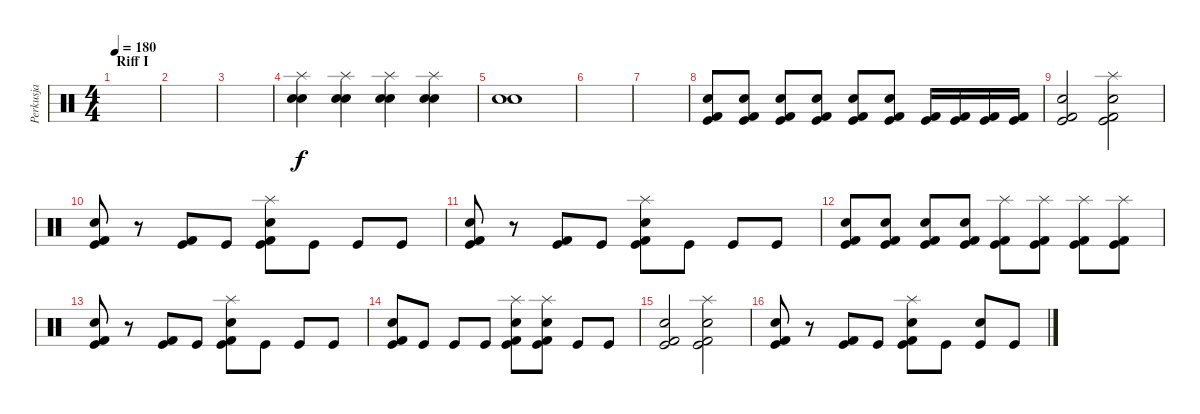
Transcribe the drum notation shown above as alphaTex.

\track ("Perkusja" "Perkusja") {instrument percussion}
\staff {score}
\articulation defaults
\ts (4 4)
\section ("" "Riff I")
\tempo 180
\clef neutral
\ks c
|
|
|
("Splash (hit)" "Snare (hit) 2" "Electric Snare (hit)").4 ("Splash (hit)" "Snare (hit) 2" "Electric Snare (hit)").4 ("Splash (hit)" "Snare (hit) 2" "Electric Snare (hit)").4 ("Splash (hit)" "Snare (hit) 2" "Electric Snare (hit)").4 |
("Electric Snare (hit)" "Snare (hit) 2").1 |
|
|
("Kick (hit) 2" "Electric Snare (hit)" "Kick (hit)").8 ("Kick (hit) 2" "Electric Snare (hit)" "Kick (hit)").8 ("Kick (hit) 2" "Electric Snare (hit)" "Kick (hit)").8 ("Kick (hit) 2" "Electric Snare (hit)" "Kick (hit)").8 ("Kick (hit) 2" "Electric Snare (hit)" "Kick (hit)").8 ("Kick (hit) 2" "Electric Snare (hit)" "Kick (hit)").8 ("Kick (hit) 2" "Kick (hit)").16 ("Kick (hit) 2" "Kick (hit)").16 ("Kick (hit) 2" "Kick (hit)").16 ("Kick (hit) 2" "Kick (hit)").16 |
("Electric Snare (hit)" "Kick (hit) 2" "Kick (hit)").2 ("Snare (hit) 2" "Splash (hit)" "Kick (hit)" "Kick (hit) 2").2 |
("Electric Snare (hit)" "Kick (hit) 2" "Kick (hit)").8 r.8 ("Kick (hit) 2" "Kick (hit)").8 "Kick (hit)".8 ("Snare (hit) 2" "Splash (hit)" "Kick (hit)" "Kick (hit) 2").8 "Kick (hit)".8 "Kick (hit)".8 "Kick (hit)".8 |
("Electric Snare (hit)" "Kick (hit) 2" "Kick (hit)").8 r.8 ("Kick (hit) 2" "Kick (hit)").8 "Kick (hit)".8 ("Snare (hit) 2" "Splash (hit)" "Kick (hit)" "Kick (hit) 2").8 "Kick (hit)".8 "Kick (hit)".8 "Kick (hit)".8 |
("Kick (hit) 2" "Electric Snare (hit)" "Kick (hit)").8 ("Kick (hit) 2" "Electric Snare (hit)" "Kick (hit)").8 ("Kick (hit) 2" "Electric Snare (hit)" "Kick (hit)").8 ("Kick (hit) 2" "Electric Snare (hit)" "Kick (hit)").8 ("Kick (hit) 2" "Splash (hit)" "Kick (hit)").8 ("Kick (hit) 2" "Splash (hit)" "Kick (hit)").8 ("Kick (hit) 2" "Splash (hit)" "Kick (hit)").8 ("Kick (hit) 2" "Splash (hit)" "Kick (hit)").8 |
("Electric Snare (hit)" "Kick (hit) 2" "Kick (hit)").8 r.8 ("Kick (hit) 2" "Kick (hit)").8 "Kick (hit)".8 ("Snare (hit) 2" "Splash (hit)" "Kick (hit)" "Kick (hit) 2").8 "Kick (hit)".8 "Kick (hit)".8 "Kick (hit)".8 |
("Electric Snare (hit)" "Kick (hit) 2" "Kick (hit)").8 "Kick (hit)".8 "Kick (hit)".8 "Kick (hit)".8 ("Snare (hit) 2" "Splash (hit)" "Kick (hit)" "Kick (hit) 2").8 ("Snare (hit) 2" "Splash (hit)" "Kick (hit)" "Kick (hit) 2").8 "Kick (hit)".8 "Kick (hit)".8 |
("Electric Snare (hit)" "Kick (hit) 2" "Kick (hit)").2 ("Snare (hit) 2" "Splash (hit)" "Kick (hit)" "Kick (hit) 2").2 |
("Electric Snare (hit)" "Kick (hit) 2" "Kick (hit)").8 r.8 ("Kick (hit) 2" "Kick (hit)").8 "Kick (hit)".8 ("Snare (hit) 2" "Splash (hit)" "Kick (hit)" "Kick (hit) 2").8 "Kick (hit)".8 ("Electric Snare (hit)" "Kick (hit)").8 "Kick (hit)".8
